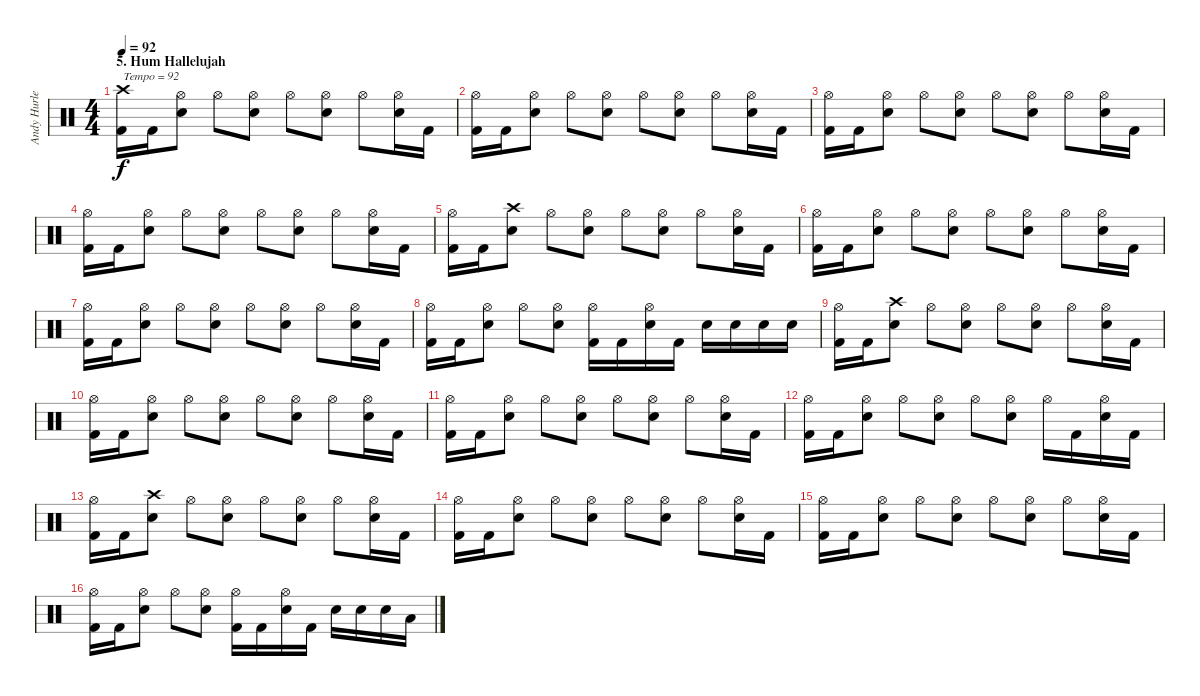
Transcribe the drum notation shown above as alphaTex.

\track ("Andy Hurley" "Andy Hurle") {instrument percussion}
\staff {score}
\articulation defaults
\ts (4 4)
\section ("" "5. Hum Hallelujah")
\tempo 92
\clef neutral
\ks c
("Crash high (hit)" "Kick (hit) 2").16{txt "Tempo = 92" dy f} "Kick (hit) 2".16 ("Hi-Hat (open)" "Snare (hit) 2").8 "Hi-Hat (open)".8 ("Hi-Hat (open)" "Snare (hit) 2").8 "Hi-Hat (open)".8 ("Hi-Hat (open)" "Snare (hit) 2").8 "Hi-Hat (open)".8 ("Hi-Hat (open)" "Snare (hit) 2").16 "Kick (hit) 2".16 |
("Hi-Hat (open)" "Kick (hit) 2").16 "Kick (hit) 2".16 ("Hi-Hat (open)" "Snare (hit) 2").8 "Hi-Hat (open)".8 ("Hi-Hat (open)" "Snare (hit) 2").8 "Hi-Hat (open)".8 ("Hi-Hat (open)" "Snare (hit) 2").8 "Hi-Hat (open)".8 ("Hi-Hat (open)" "Snare (hit) 2").16 "Kick (hit) 2".16 |
("Hi-Hat (open)" "Kick (hit) 2").16 "Kick (hit) 2".16 ("Hi-Hat (open)" "Snare (hit) 2").8 "Hi-Hat (open)".8 ("Hi-Hat (open)" "Snare (hit) 2").8 "Hi-Hat (open)".8 ("Hi-Hat (open)" "Snare (hit) 2").8 "Hi-Hat (open)".8 ("Hi-Hat (open)" "Snare (hit) 2").16 "Kick (hit) 2".16 |
("Hi-Hat (open)" "Kick (hit) 2").16 "Kick (hit) 2".16 ("Hi-Hat (open)" "Snare (hit) 2").8 "Hi-Hat (open)".8 ("Hi-Hat (open)" "Snare (hit) 2").8 "Hi-Hat (open)".8 ("Hi-Hat (open)" "Snare (hit) 2").8 "Hi-Hat (open)".8 ("Hi-Hat (open)" "Snare (hit) 2").16 "Kick (hit) 2".16 |
("Hi-Hat (open)" "Kick (hit) 2").16 "Kick (hit) 2".16 ("Crash high (hit)" "Snare (hit) 2").8 "Hi-Hat (open)".8 ("Hi-Hat (open)" "Snare (hit) 2").8 "Hi-Hat (open)".8 ("Hi-Hat (open)" "Snare (hit) 2").8 "Hi-Hat (open)".8 ("Hi-Hat (open)" "Snare (hit) 2").16 "Kick (hit) 2".16 |
("Hi-Hat (open)" "Kick (hit) 2").16 "Kick (hit) 2".16 ("Hi-Hat (open)" "Snare (hit) 2").8 "Hi-Hat (open)".8 ("Hi-Hat (open)" "Snare (hit) 2").8 "Hi-Hat (open)".8 ("Hi-Hat (open)" "Snare (hit) 2").8 "Hi-Hat (open)".8 ("Hi-Hat (open)" "Snare (hit) 2").16 "Kick (hit) 2".16 |
("Hi-Hat (open)" "Kick (hit) 2").16 "Kick (hit) 2".16 ("Hi-Hat (open)" "Snare (hit) 2").8 "Hi-Hat (open)".8 ("Hi-Hat (open)" "Snare (hit) 2").8 "Hi-Hat (open)".8 ("Hi-Hat (open)" "Snare (hit) 2").8 "Hi-Hat (open)".8 ("Hi-Hat (open)" "Snare (hit) 2").16 "Kick (hit) 2".16 |
("Hi-Hat (open)" "Kick (hit) 2").16 "Kick (hit) 2".16 ("Hi-Hat (open)" "Snare (hit) 2").8 "Hi-Hat (open)".8 ("Hi-Hat (open)" "Snare (hit) 2").8 ("Hi-Hat (open)" "Kick (hit) 2").16 "Kick (hit) 2".16 ("Hi-Hat (open)" "Snare (hit) 2").16 "Kick (hit) 2".16 "Snare (hit) 2".16 "Snare (hit) 2".16 "Snare (hit) 2".16 "Snare (hit) 2".16 |
("Hi-Hat (open)" "Kick (hit) 2").16 "Kick (hit) 2".16 ("Crash high (hit)" "Snare (hit) 2").8 "Hi-Hat (open)".8 ("Hi-Hat (open)" "Snare (hit) 2").8 "Hi-Hat (open)".8 ("Hi-Hat (open)" "Snare (hit) 2").8 "Hi-Hat (open)".8 ("Hi-Hat (open)" "Snare (hit) 2").16 "Kick (hit) 2".16 |
("Hi-Hat (open)" "Kick (hit) 2").16 "Kick (hit) 2".16 ("Hi-Hat (open)" "Snare (hit) 2").8 "Hi-Hat (open)".8 ("Hi-Hat (open)" "Snare (hit) 2").8 "Hi-Hat (open)".8 ("Hi-Hat (open)" "Snare (hit) 2").8 "Hi-Hat (open)".8 ("Hi-Hat (open)" "Snare (hit) 2").16 "Kick (hit) 2".16 |
("Hi-Hat (open)" "Kick (hit) 2").16 "Kick (hit) 2".16 ("Hi-Hat (open)" "Snare (hit) 2").8 "Hi-Hat (open)".8 ("Hi-Hat (open)" "Snare (hit) 2").8 "Hi-Hat (open)".8 ("Hi-Hat (open)" "Snare (hit) 2").8 "Hi-Hat (open)".8 ("Hi-Hat (open)" "Snare (hit) 2").16 "Kick (hit) 2".16 |
("Hi-Hat (open)" "Kick (hit) 2").16 "Kick (hit) 2".16 ("Hi-Hat (open)" "Snare (hit) 2").8 "Hi-Hat (open)".8 ("Hi-Hat (open)" "Snare (hit) 2").8 "Hi-Hat (open)".8 ("Hi-Hat (open)" "Snare (hit) 2").8 "Hi-Hat (open)".16 "Kick (hit) 2".16 ("Hi-Hat (open)" "Snare (hit) 2").16 "Kick (hit) 2".16 |
("Hi-Hat (open)" "Kick (hit) 2").16 "Kick (hit) 2".16 ("Crash high (hit)" "Snare (hit) 2").8 "Hi-Hat (open)".8 ("Hi-Hat (open)" "Snare (hit) 2").8 "Hi-Hat (open)".8 ("Hi-Hat (open)" "Snare (hit) 2").8 "Hi-Hat (open)".8 ("Hi-Hat (open)" "Snare (hit) 2").16 "Kick (hit) 2".16 |
("Hi-Hat (open)" "Kick (hit) 2").16 "Kick (hit) 2".16 ("Hi-Hat (open)" "Snare (hit) 2").8 "Hi-Hat (open)".8 ("Hi-Hat (open)" "Snare (hit) 2").8 "Hi-Hat (open)".8 ("Hi-Hat (open)" "Snare (hit) 2").8 "Hi-Hat (open)".8 ("Hi-Hat (open)" "Snare (hit) 2").16 "Kick (hit) 2".16 |
("Hi-Hat (open)" "Kick (hit) 2").16 "Kick (hit) 2".16 ("Hi-Hat (open)" "Snare (hit) 2").8 "Hi-Hat (open)".8 ("Hi-Hat (open)" "Snare (hit) 2").8 "Hi-Hat (open)".8 ("Hi-Hat (open)" "Snare (hit) 2").8 "Hi-Hat (open)".8 ("Hi-Hat (open)" "Snare (hit) 2").16 "Kick (hit) 2".16 |
("Hi-Hat (open)" "Kick (hit) 2").16 "Kick (hit) 2".16 ("Hi-Hat (open)" "Snare (hit) 2").8 "Hi-Hat (open)".8 ("Hi-Hat (open)" "Snare (hit) 2").8 ("Hi-Hat (open)" "Kick (hit) 2").16 "Kick (hit) 2".16 ("Hi-Hat (open)" "Snare (hit) 2").16 "Kick (hit) 2".16 "Snare (hit) 2".16 "Snare (hit) 2".16 "Snare (hit) 2".16 "Low Tom (hit)".16
